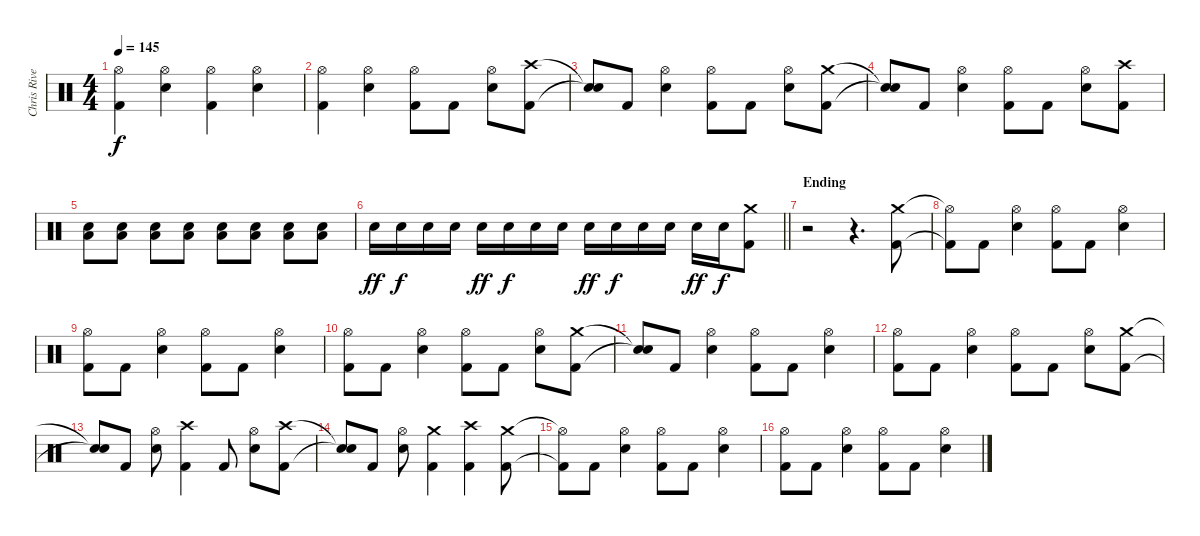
\track ("Chris Rivers" "Chris Rive") {instrument percussion}
\staff {score}
\articulation defaults
\ts (4 4)
\tempo 145
\clef neutral
\ks c
("Hi-Hat (open)" "Kick (hit) 2").4{dy f} ("Hi-Hat (open)" "Electric Snare (hit)").4 ("Hi-Hat (open)" "Kick (hit) 2").4 ("Hi-Hat (open)" "Electric Snare (hit)").4 |
("Hi-Hat (open)" "Kick (hit) 2").4 ("Hi-Hat (open)" "Electric Snare (hit)").4 ("Hi-Hat (open)" "Kick (hit) 2").8 "Kick (hit) 2".8 ("Hi-Hat (open)" "Electric Snare (hit)").8 ("Crash high (hit)" "Kick (hit) 2").8 |
("Snare (hit)"{t} "Snare (hit)"{t}).8 "Kick (hit) 2".8 ("Hi-Hat (open)" "Electric Snare (hit)").4 ("Hi-Hat (open)" "Kick (hit) 2").8 "Kick (hit) 2".8 ("Hi-Hat (open)" "Electric Snare (hit)").8 ("Crash medium (hit)" "Kick (hit) 2").8 |
("Snare (hit)"{t} "Snare (hit)"{t}).8 "Kick (hit) 2".8 ("Hi-Hat (open)" "Electric Snare (hit)").4 ("Hi-Hat (open)" "Kick (hit) 2").8 "Kick (hit) 2".8 ("Hi-Hat (open)" "Electric Snare (hit)").8 ("Crash high (hit)" "Kick (hit) 2").8 |
("Low Floor Tom (hit)" "Snare (hit) 2").8 ("Low Floor Tom (hit)" "Snare (hit) 2").8 ("Low Floor Tom (hit)" "Snare (hit) 2").8 ("Low Floor Tom (hit)" "Snare (hit) 2").8 ("Low Floor Tom (hit)" "Snare (hit) 2").8 ("Low Floor Tom (hit)" "Snare (hit) 2").8 ("Low Floor Tom (hit)" "Snare (hit) 2").8 ("Low Floor Tom (hit)" "Snare (hit) 2").8 |
\barLineRight lightlight "Electric Snare (hit)".16{dy ff} "Electric Snare (hit)".16{dy f} "Electric Snare (hit)".16 "Electric Snare (hit)".16 "Electric Snare (hit)".16{dy ff} "Electric Snare (hit)".16{dy f} "Electric Snare (hit)".16 "Electric Snare (hit)".16 "Electric Snare (hit)".16{dy ff} "Electric Snare (hit)".16{dy f} "Electric Snare (hit)".16 "Electric Snare (hit)".16 "Electric Snare (hit)".16{dy ff} "Electric Snare (hit)".16{dy f}
("Crash medium (hit)" "Kick (hit) 2").8 |
\section ("" "Ending")
r.2 r.4{d} ("Crash medium (hit)" "Kick (hit) 2").8 |
("Hi-Hat (open)"{t} "Kick (hit) 2"{t}).8 "Kick (hit) 2".8 ("Hi-Hat (open)" "Electric Snare (hit)").4 ("Hi-Hat (open)" "Kick (hit) 2").8 "Kick (hit) 2".8 ("Hi-Hat (open)" "Electric Snare (hit)").4 |
("Hi-Hat (open)" "Kick (hit) 2").8 "Kick (hit) 2".8 ("Hi-Hat (open)" "Electric Snare (hit)").4 ("Hi-Hat (open)" "Kick (hit) 2").8 "Kick (hit) 2".8 ("Hi-Hat (open)" "Electric Snare (hit)").4 |
("Hi-Hat (open)" "Kick (hit) 2").8 "Kick (hit) 2".8 ("Hi-Hat (open)" "Electric Snare (hit)").4 ("Hi-Hat (open)" "Kick (hit) 2").8 "Kick (hit) 2".8 ("Hi-Hat (open)" "Electric Snare (hit)").8 ("Crash medium (hit)" "Kick (hit) 2").8 |
("Snare (hit)"{t} "Snare (hit)"{t}).8 "Kick (hit) 2".8 ("Hi-Hat (open)" "Electric Snare (hit)").4 ("Hi-Hat (open)" "Kick (hit) 2").8 "Kick (hit) 2".8 ("Hi-Hat (open)" "Electric Snare (hit)").4 |
("Hi-Hat (open)" "Kick (hit) 2").8 "Kick (hit) 2".8 ("Hi-Hat (open)" "Electric Snare (hit)").4 ("Hi-Hat (open)" "Kick (hit) 2").8 "Kick (hit) 2".8 ("Hi-Hat (open)" "Electric Snare (hit)").8 ("Crash medium (hit)" "Kick (hit) 2").8 |
("Snare (hit)"{t} "Snare (hit)"{t}).8 "Kick (hit) 2".8 ("Hi-Hat (open)" "Electric Snare (hit)").8 ("Crash high (hit)" "Kick (hit) 2").4 "Kick (hit) 2".8 ("Hi-Hat (open)" "Electric Snare (hit)").8 ("Crash high (hit)" "Kick (hit) 2").8 |
("Snare (hit)"{t} "Snare (hit)"{t}).8 "Kick (hit) 2".8 ("Hi-Hat (open)" "Electric Snare (hit)").8 ("Crash medium (hit)" "Kick (hit) 2").4 ("Crash high (hit)" "Kick (hit) 2").4 ("Crash medium (hit)" "Kick (hit) 2").8 |
("Hi-Hat (open)"{t} "Kick (hit) 2"{t}).8 "Kick (hit) 2".8 ("Hi-Hat (open)" "Electric Snare (hit)").4 ("Hi-Hat (open)" "Kick (hit) 2").8 "Kick (hit) 2".8 ("Hi-Hat (open)" "Electric Snare (hit)").4 |
("Hi-Hat (open)" "Kick (hit) 2").8 "Kick (hit) 2".8 ("Hi-Hat (open)" "Electric Snare (hit)").4 ("Hi-Hat (open)" "Kick (hit) 2").8 "Kick (hit) 2".8 ("Hi-Hat (open)" "Electric Snare (hit)").4
